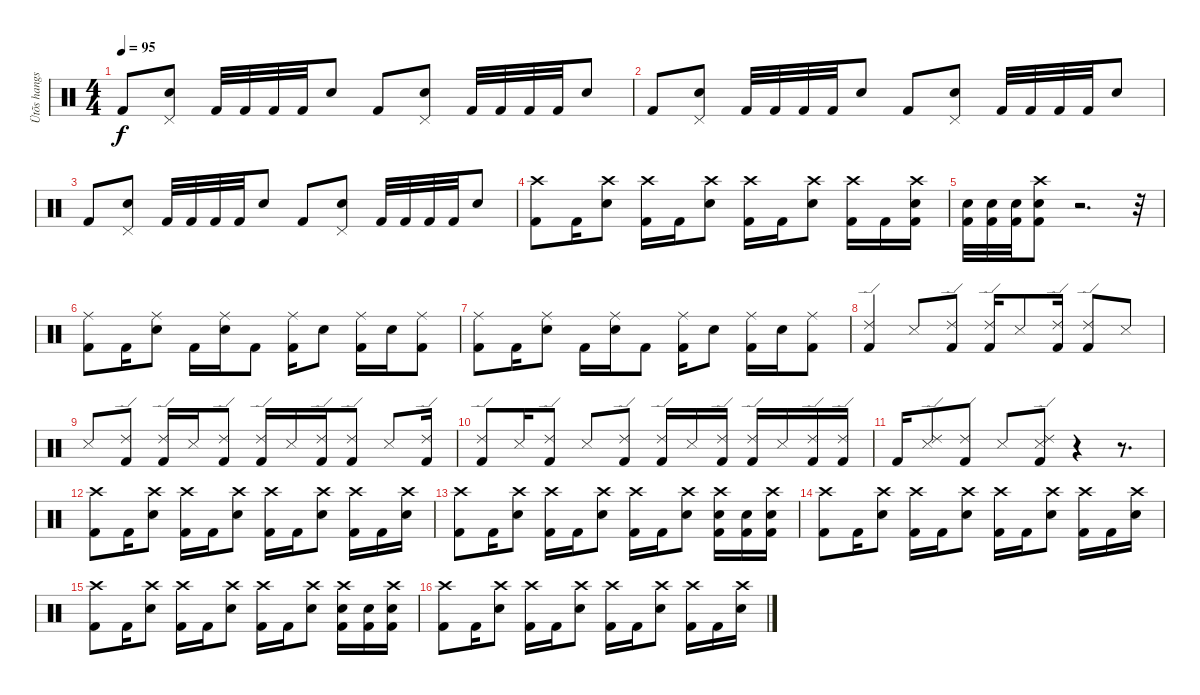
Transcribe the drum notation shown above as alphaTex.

\track ("Ütõs hangszer" "Ütõs hangs") {instrument percussion}
\staff {score}
\articulation defaults
\ts (4 4)
\tempo 95
\clef neutral
\ks c "Kick (hit) 2".8{dy f}
("Pedal Hi-Hat (hit)" "Electric Snare (hit)").8 "Kick (hit) 2".32 "Kick (hit) 2".32 "Kick (hit) 2".32 "Kick (hit) 2".32 "Electric Snare (hit)".8 "Kick (hit) 2".8 ("Pedal Hi-Hat (hit)" "Electric Snare (hit)").8 "Kick (hit) 2".32 "Kick (hit) 2".32 "Kick (hit) 2".32 "Kick (hit) 2".32 "Electric Snare (hit)".8 |
"Kick (hit) 2".8 ("Pedal Hi-Hat (hit)" "Electric Snare (hit)").8 "Kick (hit) 2".32 "Kick (hit) 2".32 "Kick (hit) 2".32 "Kick (hit) 2".32 "Electric Snare (hit)".8 "Kick (hit) 2".8 ("Pedal Hi-Hat (hit)" "Electric Snare (hit)").8 "Kick (hit) 2".32 "Kick (hit) 2".32 "Kick (hit) 2".32 "Kick (hit) 2".32 "Electric Snare (hit)".8 |
"Kick (hit) 2".8 ("Pedal Hi-Hat (hit)" "Electric Snare (hit)").8 "Kick (hit) 2".32 "Kick (hit) 2".32 "Kick (hit) 2".32 "Kick (hit) 2".32 "Electric Snare (hit)".8 "Kick (hit) 2".8 ("Pedal Hi-Hat (hit)" "Electric Snare (hit)").8 "Kick (hit) 2".32 "Kick (hit) 2".32 "Kick (hit) 2".32 "Kick (hit) 2".32 "Electric Snare (hit)".8 |
("Crash high (hit)" "Kick (hit) 2").8 "Kick (hit) 2".16 ("Crash high (hit)" "Electric Snare (hit)").8 ("Crash high (hit)" "Kick (hit) 2").16 "Kick (hit) 2".16 ("Crash high (hit)" "Electric Snare (hit)").8 ("Crash high (hit)" "Kick (hit) 2").16 "Kick (hit) 2".16 ("Crash high (hit)" "Electric Snare (hit)").8 ("Crash high (hit)" "Kick (hit) 2").16 "Kick (hit) 2".16 ("Crash high (hit)" "Electric Snare (hit)" "Kick (hit) 2").16 |
("Electric Snare (hit)" "Kick (hit) 2").32 ("Electric Snare (hit)" "Kick (hit) 2").32 ("Electric Snare (hit)" "Kick (hit) 2").32 ("Crash high (hit)" "Electric Snare (hit)" "Kick (hit) 2").8 r.2{d} r.32 |
("Ride (middle)" "Kick (hit) 2").8 "Kick (hit) 2".16 ("Ride (middle)" "Electric Snare (hit)").8 "Kick (hit) 2".16 ("Ride (middle)" "Electric Snare (hit)").16 "Kick (hit) 2".8 ("Ride (middle)" "Kick (hit) 2").16 "Electric Snare (hit)".8 ("Ride (middle)" "Kick (hit) 2").16 "Electric Snare (hit)".16 ("Ride (middle)" "Kick (hit) 2").8 |
("Ride (middle)" "Kick (hit) 2").8 "Kick (hit) 2".16 ("Ride (middle)" "Electric Snare (hit)").8 "Kick (hit) 2".16 ("Ride (middle)" "Electric Snare (hit)").16 "Kick (hit) 2".8 ("Ride (middle)" "Kick (hit) 2").16 "Electric Snare (hit)".8 ("Ride (middle)" "Kick (hit) 2").16 "Electric Snare (hit)".16 ("Ride (middle)" "Kick (hit) 2").8 |
("Ride (edge) 2" "Kick (hit) 2").4 "Snare (side stick) 3".8 ("Ride (edge) 2" "Kick (hit) 2").8 ("Ride (edge) 2" "Kick (hit) 2").16 "Snare (side stick) 3".8 ("Ride (edge) 2" "Kick (hit) 2").16 ("Ride (edge) 2" "Kick (hit) 2").8 "Snare (side stick) 3".8 |
"Snare (side stick) 3".8 ("Ride (edge) 2" "Kick (hit) 2").8 ("Ride (edge) 2" "Kick (hit) 2").16 "Snare (side stick) 3".16 ("Ride (edge) 2" "Kick (hit) 2").8 ("Ride (edge) 2" "Kick (hit) 2").16 "Snare (side stick) 3".16 ("Ride (edge) 2" "Kick (hit) 2").16 ("Ride (edge) 2" "Kick (hit) 2").8 "Snare (side stick) 3".8 ("Ride (edge) 2" "Kick (hit) 2").16 |
("Ride (edge) 2" "Kick (hit) 2").8 "Snare (side stick) 3".16 ("Ride (edge) 2" "Kick (hit) 2").8 "Snare (side stick) 3".8 ("Ride (edge) 2" "Kick (hit) 2").8 ("Ride (edge) 2" "Kick (hit) 2").16 "Snare (side stick) 3".16 ("Ride (edge) 2" "Kick (hit) 2").16 ("Ride (edge) 2" "Kick (hit) 2").16 "Snare (side stick) 3".16 ("Ride (edge) 2" "Kick (hit) 2").16 ("Ride (edge) 2" "Kick (hit) 2").16 |
"Kick (hit) 2".16 ("Ride (edge) 2" "Snare (side stick) 3").8 ("Ride (edge) 2" "Kick (hit) 2").8 "Snare (side stick) 3".8 ("Ride (edge) 2" "Snare (side stick) 3" "Kick (hit) 2").8 r.4 r.8{d} |
("Crash high (hit)" "Kick (hit) 2").8 "Kick (hit) 2".16 ("Crash high (hit)" "Electric Snare (hit)").8 ("Crash high (hit)" "Kick (hit) 2").16 "Kick (hit) 2".16 ("Crash high (hit)" "Electric Snare (hit)").8 ("Crash high (hit)" "Kick (hit) 2").16 "Kick (hit) 2".16 ("Crash high (hit)" "Electric Snare (hit)").8 ("Crash high (hit)" "Kick (hit) 2").16 "Kick (hit) 2".16 ("Crash high (hit)" "Electric Snare (hit)").16 |
("Crash high (hit)" "Kick (hit) 2").8 "Kick (hit) 2".16 ("Crash high (hit)" "Electric Snare (hit)").8 ("Crash high (hit)" "Kick (hit) 2").16 "Kick (hit) 2".16 ("Crash high (hit)" "Electric Snare (hit)").8 ("Crash high (hit)" "Kick (hit) 2").16 "Kick (hit) 2".16 ("Crash high (hit)" "Electric Snare (hit)").8 ("Crash high (hit)" "Electric Snare (hit)" "Kick (hit) 2").16 ("Electric Snare (hit)" "Kick (hit) 2").16 ("Crash high (hit)" "Electric Snare (hit)" "Kick (hit) 2").16 |
("Crash high (hit)" "Kick (hit) 2").8 "Kick (hit) 2".16 ("Crash high (hit)" "Electric Snare (hit)").8 ("Crash high (hit)" "Kick (hit) 2").16 "Kick (hit) 2".16 ("Crash high (hit)" "Electric Snare (hit)").8 ("Crash high (hit)" "Kick (hit) 2").16 "Kick (hit) 2".16 ("Crash high (hit)" "Electric Snare (hit)").8 ("Crash high (hit)" "Kick (hit) 2").16 "Kick (hit) 2".16 ("Crash high (hit)" "Electric Snare (hit)").16 |
("Crash high (hit)" "Kick (hit) 2").8 "Kick (hit) 2".16 ("Crash high (hit)" "Electric Snare (hit)").8 ("Crash high (hit)" "Kick (hit) 2").16 "Kick (hit) 2".16 ("Crash high (hit)" "Electric Snare (hit)").8 ("Crash high (hit)" "Kick (hit) 2").16 "Kick (hit) 2".16 ("Crash high (hit)" "Electric Snare (hit)").8 ("Crash high (hit)" "Electric Snare (hit)" "Kick (hit) 2").16 ("Electric Snare (hit)" "Kick (hit) 2").16 ("Crash high (hit)" "Electric Snare (hit)" "Kick (hit) 2").16 |
("Crash high (hit)" "Kick (hit) 2").8 "Kick (hit) 2".16 ("Crash high (hit)" "Electric Snare (hit)").8 ("Crash high (hit)" "Kick (hit) 2").16 "Kick (hit) 2".16 ("Crash high (hit)" "Electric Snare (hit)").8 ("Crash high (hit)" "Kick (hit) 2").16 "Kick (hit) 2".16 ("Crash high (hit)" "Electric Snare (hit)").8 ("Crash high (hit)" "Kick (hit) 2").16 "Kick (hit) 2".16 ("Crash high (hit)" "Electric Snare (hit)").16
